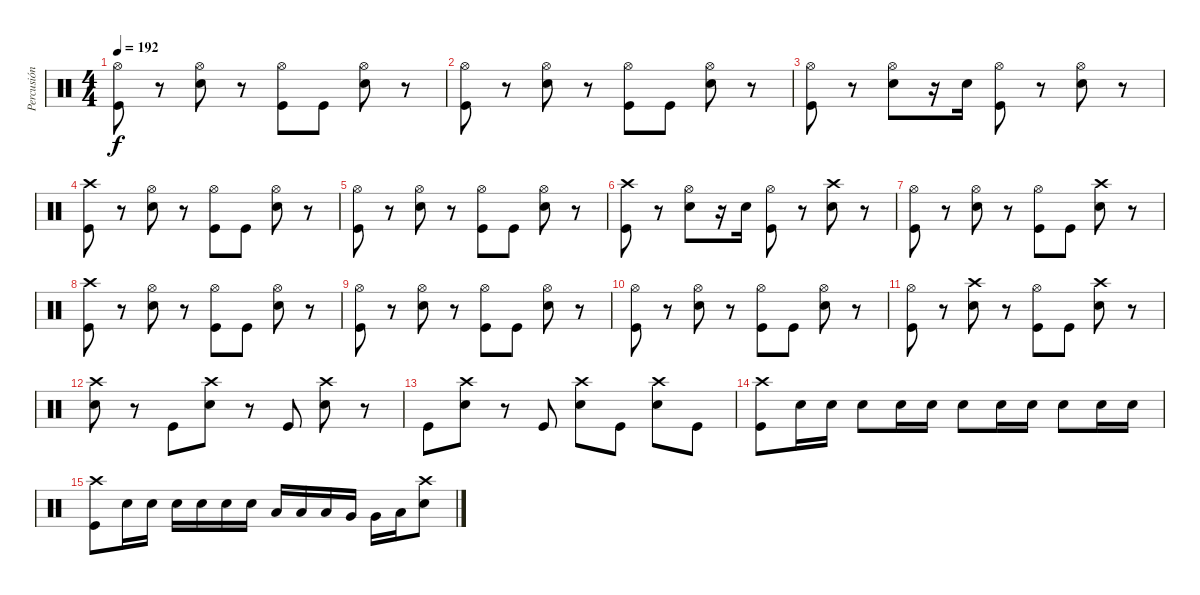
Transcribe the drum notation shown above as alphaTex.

\track ("Percusión" "Percusión") {instrument percussion}
\staff {score}
\articulation defaults
\ts (4 4)
\tempo 192
\clef neutral
\ks c
("Kick (hit)" "Hi-Hat (open)").8{dy f} r.8 ("Electric Snare (hit)" "Hi-Hat (open)").8 r.8 ("Kick (hit)" "Hi-Hat (open)").8 "Kick (hit)".8 ("Electric Snare (hit)" "Hi-Hat (open)").8 r.8 |
("Kick (hit)" "Hi-Hat (open)").8 r.8 ("Electric Snare (hit)" "Hi-Hat (open)").8 r.8 ("Kick (hit)" "Hi-Hat (open)").8 "Kick (hit)".8 ("Electric Snare (hit)" "Hi-Hat (open)").8 r.8 |
("Kick (hit)" "Hi-Hat (open)").8 r.8 ("Electric Snare (hit)" "Hi-Hat (open)").8 r.16 "Electric Snare (hit)".16 ("Kick (hit)" "Hi-Hat (open)").8 r.8 ("Electric Snare (hit)" "Hi-Hat (open)").8 r.8 |
("Kick (hit)" "Crash high (hit)").8 r.8 ("Electric Snare (hit)" "Hi-Hat (open)").8 r.8 ("Kick (hit)" "Hi-Hat (open)").8 "Kick (hit)".8 ("Electric Snare (hit)" "Hi-Hat (open)").8 r.8 |
("Kick (hit)" "Hi-Hat (open)").8 r.8 ("Electric Snare (hit)" "Hi-Hat (open)").8 r.8 ("Kick (hit)" "Hi-Hat (open)").8 "Kick (hit)".8 ("Electric Snare (hit)" "Hi-Hat (open)").8 r.8 |
("Kick (hit)" "Crash high (hit)").8 r.8 ("Electric Snare (hit)" "Hi-Hat (open)").8 r.16 "Electric Snare (hit)".16 ("Kick (hit)" "Hi-Hat (open)").8 r.8 ("Electric Snare (hit)" "Crash high (hit)").8 r.8 |
("Kick (hit)" "Hi-Hat (open)").8 r.8 ("Electric Snare (hit)" "Hi-Hat (open)").8 r.8 ("Kick (hit)" "Hi-Hat (open)").8 "Kick (hit)".8 ("Electric Snare (hit)" "Crash high (hit)").8 r.8 |
("Kick (hit)" "Crash high (hit)").8 r.8 ("Electric Snare (hit)" "Hi-Hat (open)").8 r.8 ("Kick (hit)" "Hi-Hat (open)").8 "Kick (hit)".8 ("Electric Snare (hit)" "Hi-Hat (open)").8 r.8 |
("Kick (hit)" "Hi-Hat (open)").8 r.8 ("Electric Snare (hit)" "Hi-Hat (open)").8 r.8 ("Kick (hit)" "Hi-Hat (open)").8 "Kick (hit)".8 ("Electric Snare (hit)" "Hi-Hat (open)").8 r.8 |
("Kick (hit)" "Hi-Hat (open)").8 r.8 ("Electric Snare (hit)" "Hi-Hat (open)").8 r.8 ("Kick (hit)" "Hi-Hat (open)").8 "Kick (hit)".8 ("Electric Snare (hit)" "Hi-Hat (open)").8 r.8 |
("Kick (hit)" "Hi-Hat (open)").8 r.8 ("Electric Snare (hit)" "Crash high (hit)").8 r.8 ("Kick (hit)" "Hi-Hat (open)").8 "Kick (hit)".8 ("Electric Snare (hit)" "Crash high (hit)").8 r.8 |
("Electric Snare (hit)" "Crash high (hit)").8 r.8 "Kick (hit)".8 ("Electric Snare (hit)" "Crash high (hit)").8 r.8 "Kick (hit)".8 ("Electric Snare (hit)" "Crash high (hit)").8 r.8 |
"Kick (hit)".8 ("Electric Snare (hit)" "Crash high (hit)").8 r.8 "Kick (hit)".8 ("Electric Snare (hit)" "Crash high (hit)").8 "Kick (hit)".8 ("Electric Snare (hit)" "Crash high (hit)").8 "Kick (hit)".8 |
("Kick (hit)" "Crash high (hit)").8 "Electric Snare (hit)".16 "Electric Snare (hit)".16 "Electric Snare (hit)".8 "Electric Snare (hit)".16 "Electric Snare (hit)".16 "Electric Snare (hit)".8 "Electric Snare (hit)".16 "Electric Snare (hit)".16 "Electric Snare (hit)".8 "Electric Snare (hit)".16 "Electric Snare (hit)".16 |
("Kick (hit)" "Crash high (hit)").8 "Electric Snare (hit)".16 "Electric Snare (hit)".16 "Electric Snare (hit)".16 "Electric Snare (hit)".16 "Electric Snare (hit)".16 "Electric Snare (hit)".16 "Low Tom (hit)".16 "Low Tom (hit)".16 "Low Tom (hit)".16 "Very Low Tom (hit)".16 "Very Low Tom (hit)".16 "Low Floor Tom (hit)".16 ("Electric Snare (hit)" "Crash high (hit)").8
